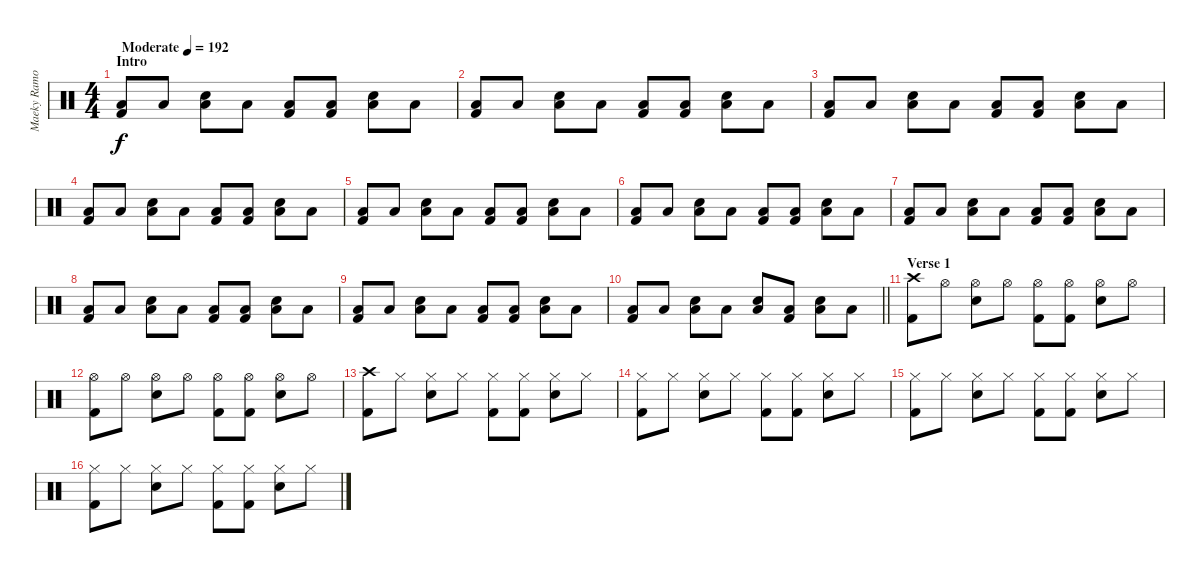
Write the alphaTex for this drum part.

\track ("Maeky Ramone" "Maeky Ramo") {instrument percussion}
\staff {score}
\articulation defaults
\ts (4 4)
\section ("" "Intro")
\tempo (192 "Moderate")
\clef neutral
\ks c
("Kick (hit) 2" "Low Floor Tom (hit)").8{dy f} "Low Floor Tom (hit)".8 ("Snare (hit) 2" "Low Floor Tom (hit)").8 "Low Floor Tom (hit)".8 ("Kick (hit) 2" "Low Floor Tom (hit)").8 ("Kick (hit) 2" "Low Floor Tom (hit)").8 ("Snare (hit) 2" "Low Floor Tom (hit)").8 "Low Floor Tom (hit)".8 |
("Kick (hit) 2" "Low Floor Tom (hit)").8 "Low Floor Tom (hit)".8 ("Snare (hit) 2" "Low Floor Tom (hit)").8 "Low Floor Tom (hit)".8 ("Kick (hit) 2" "Low Floor Tom (hit)").8 ("Kick (hit) 2" "Low Floor Tom (hit)").8 ("Snare (hit) 2" "Low Floor Tom (hit)").8 "Low Floor Tom (hit)".8 |
("Kick (hit) 2" "Low Floor Tom (hit)").8 "Low Floor Tom (hit)".8 ("Snare (hit) 2" "Low Floor Tom (hit)").8 "Low Floor Tom (hit)".8 ("Kick (hit) 2" "Low Floor Tom (hit)").8 ("Kick (hit) 2" "Low Floor Tom (hit)").8 ("Snare (hit) 2" "Low Floor Tom (hit)").8 "Low Floor Tom (hit)".8 |
("Kick (hit) 2" "Low Floor Tom (hit)").8 "Low Floor Tom (hit)".8 ("Snare (hit) 2" "Low Floor Tom (hit)").8 "Low Floor Tom (hit)".8 ("Kick (hit) 2" "Low Floor Tom (hit)").8 ("Kick (hit) 2" "Low Floor Tom (hit)").8 ("Snare (hit) 2" "Low Floor Tom (hit)").8 "Low Floor Tom (hit)".8 |
("Kick (hit) 2" "Low Floor Tom (hit)").8 "Low Floor Tom (hit)".8 ("Snare (hit) 2" "Low Floor Tom (hit)").8 "Low Floor Tom (hit)".8 ("Kick (hit) 2" "Low Floor Tom (hit)").8 ("Kick (hit) 2" "Low Floor Tom (hit)").8 ("Snare (hit) 2" "Low Floor Tom (hit)").8 "Low Floor Tom (hit)".8 |
("Kick (hit) 2" "Low Floor Tom (hit)").8 "Low Floor Tom (hit)".8 ("Snare (hit) 2" "Low Floor Tom (hit)").8 "Low Floor Tom (hit)".8 ("Kick (hit) 2" "Low Floor Tom (hit)").8 ("Kick (hit) 2" "Low Floor Tom (hit)").8 ("Snare (hit) 2" "Low Floor Tom (hit)").8 "Low Floor Tom (hit)".8 |
("Kick (hit) 2" "Low Floor Tom (hit)").8 "Low Floor Tom (hit)".8 ("Snare (hit) 2" "Low Floor Tom (hit)").8 "Low Floor Tom (hit)".8 ("Kick (hit) 2" "Low Floor Tom (hit)").8 ("Kick (hit) 2" "Low Floor Tom (hit)").8 ("Snare (hit) 2" "Low Floor Tom (hit)").8 "Low Floor Tom (hit)".8 |
("Kick (hit) 2" "Low Floor Tom (hit)").8 "Low Floor Tom (hit)".8 ("Snare (hit) 2" "Low Floor Tom (hit)").8 "Low Floor Tom (hit)".8 ("Kick (hit) 2" "Low Floor Tom (hit)").8 ("Kick (hit) 2" "Low Floor Tom (hit)").8 ("Snare (hit) 2" "Low Floor Tom (hit)").8 "Low Floor Tom (hit)".8 |
("Kick (hit) 2" "Low Floor Tom (hit)").8 "Low Floor Tom (hit)".8 ("Snare (hit) 2" "Low Floor Tom (hit)").8 "Low Floor Tom (hit)".8 ("Kick (hit) 2" "Low Floor Tom (hit)").8 ("Kick (hit) 2" "Low Floor Tom (hit)").8 ("Snare (hit) 2" "Low Floor Tom (hit)").8 "Low Floor Tom (hit)".8 |
\barLineRight lightlight
("Kick (hit) 2" "Low Floor Tom (hit)").8 "Low Floor Tom (hit)".8 ("Snare (hit) 2" "Low Floor Tom (hit)").8 "Low Floor Tom (hit)".8 ("Snare (hit) 2" "Low Floor Tom (hit)").8 ("Kick (hit) 2" "Low Floor Tom (hit)").8 ("Snare (hit) 2" "Low Floor Tom (hit)").8 "Low Floor Tom (hit)".8 |
\section ("" "Verse 1")
("Crash high (hit)" "Kick (hit) 2").8 "Hi-Hat (open)".8 ("Hi-Hat (open)" "Snare (hit) 2").8 "Hi-Hat (open)".8 ("Hi-Hat (open)" "Kick (hit) 2").8 ("Hi-Hat (open)" "Kick (hit) 2").8 ("Hi-Hat (open)" "Snare (hit) 2").8 "Hi-Hat (open)".8 |
("Hi-Hat (open)" "Kick (hit) 2").8 "Hi-Hat (open)".8 ("Hi-Hat (open)" "Snare (hit) 2").8 "Hi-Hat (open)".8 ("Hi-Hat (open)" "Kick (hit) 2").8 ("Hi-Hat (open)" "Kick (hit) 2").8 ("Hi-Hat (open)" "Snare (hit) 2").8 "Hi-Hat (open)".8 |
("Crash high (hit)" "Kick (hit) 2").8 "Hi-Hat (closed)".8 ("Hi-Hat (closed)" "Snare (hit) 2").8 "Hi-Hat (closed)".8 ("Hi-Hat (closed)" "Kick (hit) 2").8 ("Hi-Hat (closed)" "Kick (hit) 2").8 ("Hi-Hat (closed)" "Snare (hit) 2").8 "Hi-Hat (closed)".8 |
("Hi-Hat (closed)" "Kick (hit) 2").8 "Hi-Hat (closed)".8 ("Hi-Hat (closed)" "Snare (hit) 2").8 "Hi-Hat (closed)".8 ("Hi-Hat (closed)" "Kick (hit) 2").8 ("Hi-Hat (closed)" "Kick (hit) 2").8 ("Hi-Hat (closed)" "Snare (hit) 2").8 "Hi-Hat (closed)".8 |
("Hi-Hat (closed)" "Kick (hit) 2").8 "Hi-Hat (closed)".8 ("Hi-Hat (closed)" "Snare (hit) 2").8 "Hi-Hat (closed)".8 ("Hi-Hat (closed)" "Kick (hit) 2").8 ("Hi-Hat (closed)" "Kick (hit) 2").8 ("Hi-Hat (closed)" "Snare (hit) 2").8 "Hi-Hat (closed)".8 |
("Hi-Hat (closed)" "Kick (hit) 2").8 "Hi-Hat (closed)".8 ("Hi-Hat (closed)" "Snare (hit) 2").8 "Hi-Hat (closed)".8 ("Hi-Hat (closed)" "Kick (hit) 2").8 ("Hi-Hat (closed)" "Kick (hit) 2").8 ("Hi-Hat (closed)" "Snare (hit) 2").8 "Hi-Hat (closed)".8
